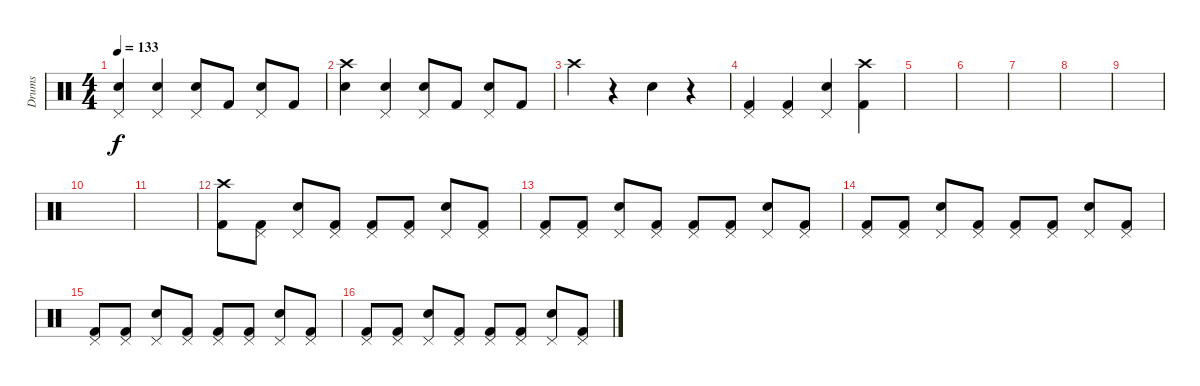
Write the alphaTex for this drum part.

\track ("Drums" "Drums") {instrument percussion}
\staff {score}
\articulation defaults
\ts (4 4)
\tempo 133
\clef neutral
\ks c
("Pedal Hi-Hat (hit)" "Snare (hit) 2").4{dy f} ("Pedal Hi-Hat (hit)" "Snare (hit) 2").4 ("Pedal Hi-Hat (hit)" "Snare (hit) 2").8 "Kick (hit) 2".8 ("Pedal Hi-Hat (hit)" "Snare (hit) 2").8 "Kick (hit) 2".8 |
("Crash high (hit)" "Snare (hit) 2").4 ("Pedal Hi-Hat (hit)" "Snare (hit) 2").4 ("Pedal Hi-Hat (hit)" "Snare (hit) 2").8 "Kick (hit) 2".8 ("Pedal Hi-Hat (hit)" "Snare (hit) 2").8 "Kick (hit) 2".8 |
"Crash high (hit)".4 r.4 "Snare (hit) 2".4 r.4 |
("Pedal Hi-Hat (hit)" "Kick (hit) 2").4 ("Pedal Hi-Hat (hit)" "Kick (hit) 2").4 ("Pedal Hi-Hat (hit)" "Snare (hit) 2").4 ("Crash high (hit)" "Kick (hit) 2").4 |
|
|
|
|
|
|
|
("Crash high (hit)" "Kick (hit) 2").8 ("Pedal Hi-Hat (hit)" "Kick (hit) 2").8 ("Pedal Hi-Hat (hit)" "Snare (hit) 2").8 ("Pedal Hi-Hat (hit)" "Kick (hit) 2").8 ("Pedal Hi-Hat (hit)" "Kick (hit) 2").8 ("Pedal Hi-Hat (hit)" "Kick (hit) 2").8 ("Pedal Hi-Hat (hit)" "Snare (hit) 2").8 ("Pedal Hi-Hat (hit)" "Kick (hit) 2").8 |
("Pedal Hi-Hat (hit)" "Kick (hit) 2").8 ("Pedal Hi-Hat (hit)" "Kick (hit) 2").8 ("Pedal Hi-Hat (hit)" "Snare (hit) 2").8 ("Pedal Hi-Hat (hit)" "Kick (hit) 2").8 ("Pedal Hi-Hat (hit)" "Kick (hit) 2").8 ("Pedal Hi-Hat (hit)" "Kick (hit) 2").8 ("Pedal Hi-Hat (hit)" "Snare (hit) 2").8 ("Pedal Hi-Hat (hit)" "Kick (hit) 2").8 |
("Pedal Hi-Hat (hit)" "Kick (hit) 2").8 ("Pedal Hi-Hat (hit)" "Kick (hit) 2").8 ("Pedal Hi-Hat (hit)" "Snare (hit) 2").8 ("Pedal Hi-Hat (hit)" "Kick (hit) 2").8 ("Pedal Hi-Hat (hit)" "Kick (hit) 2").8 ("Pedal Hi-Hat (hit)" "Kick (hit) 2").8 ("Pedal Hi-Hat (hit)" "Snare (hit) 2").8 ("Pedal Hi-Hat (hit)" "Kick (hit) 2").8 |
("Pedal Hi-Hat (hit)" "Kick (hit) 2").8 ("Pedal Hi-Hat (hit)" "Kick (hit) 2").8 ("Pedal Hi-Hat (hit)" "Snare (hit) 2").8 ("Pedal Hi-Hat (hit)" "Kick (hit) 2").8 ("Pedal Hi-Hat (hit)" "Kick (hit) 2").8 ("Pedal Hi-Hat (hit)" "Kick (hit) 2").8 ("Pedal Hi-Hat (hit)" "Snare (hit) 2").8 ("Pedal Hi-Hat (hit)" "Kick (hit) 2").8 |
("Pedal Hi-Hat (hit)" "Kick (hit) 2").8 ("Pedal Hi-Hat (hit)" "Kick (hit) 2").8 ("Pedal Hi-Hat (hit)" "Snare (hit) 2").8 ("Pedal Hi-Hat (hit)" "Kick (hit) 2").8 ("Pedal Hi-Hat (hit)" "Kick (hit) 2").8 ("Pedal Hi-Hat (hit)" "Kick (hit) 2").8 ("Pedal Hi-Hat (hit)" "Snare (hit) 2").8 ("Pedal Hi-Hat (hit)" "Kick (hit) 2").8
